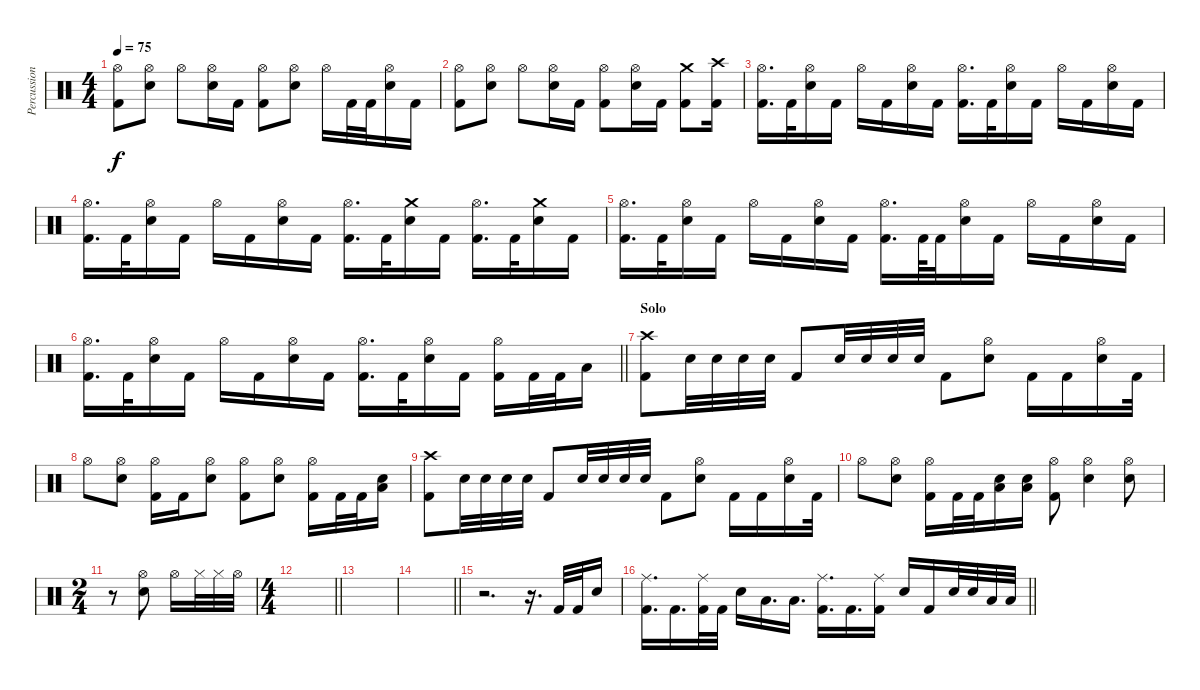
\track ("Percussion" "Percussion") {instrument percussion}
\staff {score}
\articulation defaults
\ts (4 4)
\tempo 75
\clef neutral
\ks c
("Hi-Hat (open)" "Kick (hit) 2").8{dy f} ("Hi-Hat (open)" "Snare (hit) 2").8 "Hi-Hat (open)".8 ("Hi-Hat (open)" "Snare (hit) 2").16 "Kick (hit) 2".16 ("Hi-Hat (open)" "Kick (hit) 2").8 ("Hi-Hat (open)" "Snare (hit) 2").8 "Hi-Hat (open)".16 "Kick (hit) 2".32 "Kick (hit) 2".32 ("Hi-Hat (open)" "Snare (hit) 2").16 "Kick (hit) 2".16 |
("Hi-Hat (open)" "Kick (hit) 2").8 ("Hi-Hat (open)" "Snare (hit) 2").8 "Hi-Hat (open)".8 ("Hi-Hat (open)" "Snare (hit) 2").16 "Kick (hit) 2".16 ("Hi-Hat (open)" "Kick (hit) 2").8 ("Hi-Hat (open)" "Snare (hit) 2").16 "Kick (hit) 2".16 ("Crash medium (hit)" "Kick (hit) 2").8 ("Crash high (hit)" "Kick (hit) 2").16 |
("Hi-Hat (open)" "Kick (hit) 2").16{d} "Kick (hit) 2".32 ("Hi-Hat (open)" "Snare (hit) 2").16 "Kick (hit) 2".16 "Hi-Hat (open)".16 "Kick (hit) 2".16 ("Hi-Hat (open)" "Snare (hit) 2").16 "Kick (hit) 2".16 ("Hi-Hat (open)" "Kick (hit) 2").16{d} "Kick (hit) 2".32 ("Hi-Hat (open)" "Snare (hit) 2").16 "Kick (hit) 2".16 "Hi-Hat (open)".16 "Kick (hit) 2".16 ("Hi-Hat (open)" "Snare (hit) 2").16 "Kick (hit) 2".16 |
("Hi-Hat (open)" "Kick (hit) 2").16{d} "Kick (hit) 2".32 ("Hi-Hat (open)" "Snare (hit) 2").16 "Kick (hit) 2".16 "Hi-Hat (open)".16 "Kick (hit) 2".16 ("Hi-Hat (open)" "Snare (hit) 2").16 "Kick (hit) 2".16 ("Hi-Hat (open)" "Kick (hit) 2").16{d} "Kick (hit) 2".32 ("Crash medium (hit)" "Snare (hit) 2").16 "Kick (hit) 2".16 ("Hi-Hat (open)" "Kick (hit) 2").16{d} "Kick (hit) 2".32 ("Crash medium (hit)" "Snare (hit) 2").16 "Kick (hit) 2".16 |
("Hi-Hat (open)" "Kick (hit) 2").16{d} "Kick (hit) 2".32 ("Hi-Hat (open)" "Snare (hit) 2").16 "Kick (hit) 2".16 "Hi-Hat (open)".16 "Kick (hit) 2".16 ("Hi-Hat (open)" "Snare (hit) 2").16 "Kick (hit) 2".16 ("Hi-Hat (open)" "Kick (hit) 2").16{d} "Kick (hit) 2".64 "Kick (hit) 2".32 ("Hi-Hat (open)" "Snare (hit) 2").16 "Kick (hit) 2".16 "Hi-Hat (open)".16 "Kick (hit) 2".16 ("Hi-Hat (open)" "Snare (hit) 2").16 "Kick (hit) 2".16 |
\barLineRight lightlight
("Hi-Hat (open)" "Kick (hit) 2").16{d} "Kick (hit) 2".32 ("Hi-Hat (open)" "Snare (hit) 2").16 "Kick (hit) 2".16 "Hi-Hat (open)".16 "Kick (hit) 2".16 ("Hi-Hat (open)" "Snare (hit) 2").16 "Kick (hit) 2".16 ("Hi-Hat (open)" "Kick (hit) 2").16{d} "Kick (hit) 2".32 ("Hi-Hat (open)" "Snare (hit) 2").16 "Kick (hit) 2".16 ("Hi-Hat (open)" "Kick (hit) 2").16 "Kick (hit) 2".32 "Kick (hit) 2".32 "Low Tom (hit)".16 |
\section ("" "Solo")
("Crash high (hit)" "Kick (hit) 2").8 "Snare (hit) 2".32 "Snare (hit) 2".32 "Snare (hit) 2".32 "Snare (hit) 2".32 "Kick (hit) 2".8 "Snare (hit) 2".32 "Snare (hit) 2".32 "Snare (hit) 2".32 "Snare (hit) 2".32 "Kick (hit) 2".8 ("Hi-Hat (open)" "Snare (hit) 2").8 "Kick (hit) 2".16 "Kick (hit) 2".16 ("Hi-Hat (open)" "Snare (hit) 2").16 "Kick (hit) 2".32 |
"Hi-Hat (open)".8 ("Hi-Hat (open)" "Snare (hit) 2").8 ("Hi-Hat (open)" "Kick (hit) 2").16 "Kick (hit) 2".16 ("Hi-Hat (open)" "Snare (hit) 2").8 ("Hi-Hat (open)" "Kick (hit) 2").8 ("Hi-Hat (open)" "Snare (hit) 2").8 ("Hi-Hat (open)" "Kick (hit) 2").16 "Kick (hit) 2".32 "Kick (hit) 2".32 ("Low Tom (hit)" "Snare (hit) 2").16 |
("Crash high (hit)" "Kick (hit) 2").8 "Snare (hit) 2".32 "Snare (hit) 2".32 "Snare (hit) 2".32 "Snare (hit) 2".32 "Kick (hit) 2".8 "Snare (hit) 2".32 "Snare (hit) 2".32 "Snare (hit) 2".32 "Snare (hit) 2".32 "Kick (hit) 2".8 ("Hi-Hat (open)" "Snare (hit) 2").8 "Kick (hit) 2".16 "Kick (hit) 2".16 ("Hi-Hat (open)" "Snare (hit) 2").16 "Kick (hit) 2".32 |
"Hi-Hat (open)".8 ("Hi-Hat (open)" "Snare (hit) 2").8 ("Hi-Hat (open)" "Kick (hit) 2").16 "Kick (hit) 2".32 "Kick (hit) 2".32 ("Low Tom (hit)" "Snare (hit) 2").16 ("Low Tom (hit)" "Snare (hit) 2").16 ("Hi-Hat (open)" "Kick (hit) 2").8 ("Hi-Hat (open)" "Snare (hit) 2").4 ("Hi-Hat (open)" "Snare (hit) 2").8 |
\ts (2 4)
r.8 ("Hi-Hat (open)" "Snare (hit) 2").8 "Hi-Hat (open)".16 "Hi-Hat (closed)".32 "Hi-Hat (closed)".32 "Hi-Hat (open)".32 |
\ts (4 4)
\barLineRight lightlight
|
|
\barLineRight lightlight
|
r.2{d} r.16{d} "Kick (hit) 2".32 "Kick (hit) 2".32 "Snare (hit) 2".16 |
\barLineRight lightlight
("Ride (middle)" "Kick (hit) 2").16{d} "Kick (hit) 2".16{d} ("Ride (middle)" "Kick (hit) 2").32 "Kick (hit) 2".32 "Snare (hit) 2".16 "Low Tom (hit)".16{d} "Low Floor Tom (hit)".16{d} ("Ride (middle)" "Kick (hit) 2").16{d} "Kick (hit) 2".16{d} ("Ride (middle)" "Kick (hit) 2").16 "Snare (hit) 2".16 "Kick (hit) 2".16 "Snare (hit) 2".32 "Snare (hit) 2".32 "Low Tom (hit)".32 "Low Tom (hit)".32
